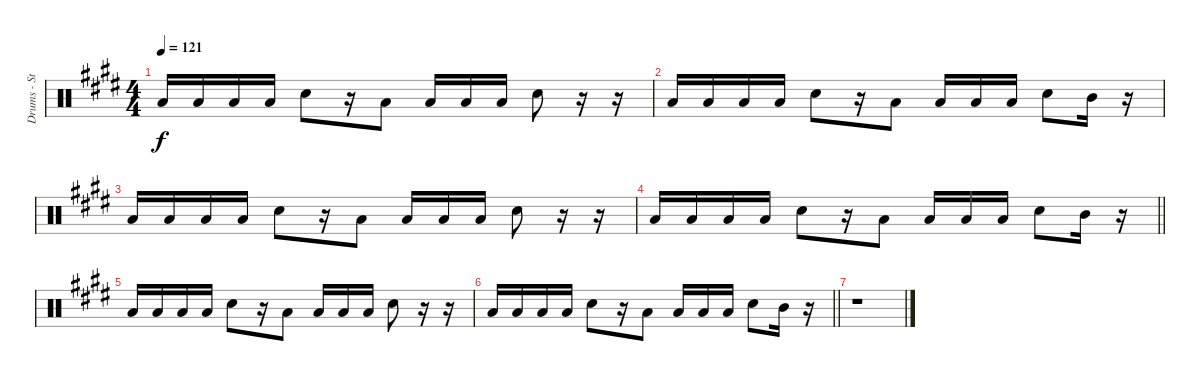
\track ("Drums - Stephen Morris" "Drums - St") {instrument percussion}
\staff {score}
\articulation defaults
\ts (4 4)
\tempo 121
\clef neutral
\ks c#minor "Low Tom (hit)".16{dy f} "Low Tom (hit)".16 "Low Tom (hit)".16 "Low Tom (hit)".16 "Electric Snare (hit)".8
r.16 "Low Tom (hit)".8 "Low Tom (hit)".16 "Low Tom (hit)".16 "Low Tom (hit)".16 "Electric Snare (hit)".8 r.16 r.16 |
\ks e "Low Tom (hit)".16 "Low Tom (hit)".16 "Low Tom (hit)".16 "Low Tom (hit)".16 "Electric Snare (hit)".8
r.16 "Low Tom (hit)".8 "Low Tom (hit)".16 "Low Tom (hit)".16 "Low Tom (hit)".16 "Electric Snare (hit)".8 "Mid Tom (hit)".16 r.16 |
\ks c#minor "Low Tom (hit)".16 "Low Tom (hit)".16 "Low Tom (hit)".16 "Low Tom (hit)".16 "Electric Snare (hit)".8
r.16 "Low Tom (hit)".8 "Low Tom (hit)".16 "Low Tom (hit)".16 "Low Tom (hit)".16 "Electric Snare (hit)".8 r.16 r.16 |
\barLineRight lightlight "Low Tom (hit)".16 "Low Tom (hit)".16 "Low Tom (hit)".16 "Low Tom (hit)".16 "Electric Snare (hit)".8
r.16 "Low Tom (hit)".8 "Low Tom (hit)".16 "Low Tom (hit)".16 "Low Tom (hit)".16 "Electric Snare (hit)".8 "Mid Tom (hit)".16 r.16 |
"Low Tom (hit)".16 "Low Tom (hit)".16 "Low Tom (hit)".16 "Low Tom (hit)".16 "Electric Snare (hit)".8 r.16 "Low Tom (hit)".8 "Low Tom (hit)".16 "Low Tom (hit)".16 "Low Tom (hit)".16 "Electric Snare (hit)".8 r.16 r.16 |
\barLineRight lightlight "Low Tom (hit)".16 "Low Tom (hit)".16 "Low Tom (hit)".16 "Low Tom (hit)".16 "Electric Snare (hit)".8
r.16 "Low Tom (hit)".8 "Low Tom (hit)".16 "Low Tom (hit)".16 "Low Tom (hit)".16 "Electric Snare (hit)".8 "Mid Tom (hit)".16 r.16 |
r.1
